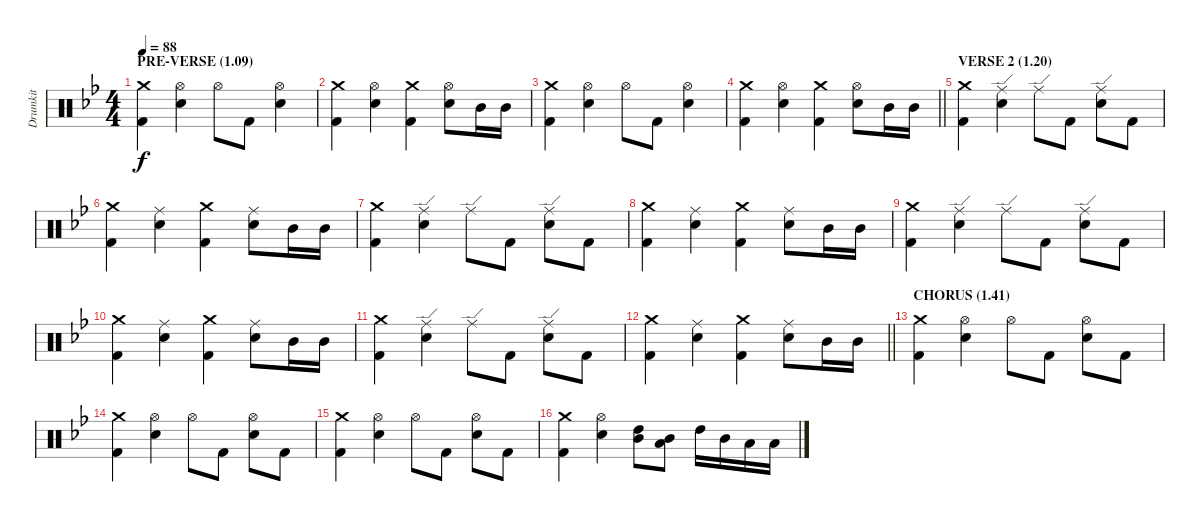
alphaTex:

\track ("Drumkit" "Drumkit") {instrument percussion}
\staff {score}
\articulation defaults
\ts (4 4)
\section ("" "PRE-VERSE (1.09)")
\tempo 88
\clef neutral
\ks bb
("Kick (hit) 2" "Crash medium (hit)").4{dy f} ("Snare (hit) 2" "Hi-Hat (open)").4 "Hi-Hat (open)".8 "Kick (hit) 2".8 ("Snare (hit) 2" "Hi-Hat (open)").4 |
("Kick (hit) 2" "Crash medium (hit)").4 ("Snare (hit) 2" "Hi-Hat (open)").4 ("Kick (hit) 2" "Crash medium (hit)").4 ("Snare (hit) 2" "Hi-Hat (open)").8 "Mid Tom (hit)".16 "Mid Tom (hit)".16 |
("Kick (hit) 2" "Crash medium (hit)").4 ("Snare (hit) 2" "Hi-Hat (open)").4 "Hi-Hat (open)".8 "Kick (hit) 2".8 ("Snare (hit) 2" "Hi-Hat (open)").4 |
\barLineRight lightlight
("Kick (hit) 2" "Crash medium (hit)").4 ("Snare (hit) 2" "Hi-Hat (open)").4 ("Kick (hit) 2" "Crash medium (hit)").4 ("Snare (hit) 2" "Hi-Hat (open)").8 "Mid Tom (hit)".16 "Mid Tom (hit)".16 |
\section ("" "VERSE 2 (1.20)")
("Kick (hit) 2" "Crash medium (hit)").4 ("Snare (hit) 2" "Ride (edge)").4 "Ride (edge)".8 "Kick (hit) 2".8 ("Snare (hit) 2" "Ride (edge)").8 "Kick (hit) 2".8 |
("Kick (hit) 2" "Crash medium (hit)").4 ("Snare (hit) 2" "Ride (middle)").4 ("Kick (hit) 2" "Crash medium (hit)").4 ("Snare (hit) 2" "Ride (middle)").8 "Mid Tom (hit)".16 "Mid Tom (hit)".16 |
("Kick (hit) 2" "Crash medium (hit)").4 ("Snare (hit) 2" "Ride (edge)").4 "Ride (edge)".8 "Kick (hit) 2".8 ("Snare (hit) 2" "Ride (edge)").8 "Kick (hit) 2".8 |
("Kick (hit) 2" "Crash medium (hit)").4 ("Snare (hit) 2" "Ride (middle)").4 ("Kick (hit) 2" "Crash medium (hit)").4 ("Snare (hit) 2" "Ride (middle)").8 "Mid Tom (hit)".16 "Mid Tom (hit)".16 |
("Kick (hit) 2" "Crash medium (hit)").4 ("Snare (hit) 2" "Ride (edge)").4 "Ride (edge)".8 "Kick (hit) 2".8 ("Snare (hit) 2" "Ride (edge)").8 "Kick (hit) 2".8 |
("Kick (hit) 2" "Crash medium (hit)").4 ("Snare (hit) 2" "Ride (middle)").4 ("Kick (hit) 2" "Crash medium (hit)").4 ("Snare (hit) 2" "Ride (middle)").8 "Mid Tom (hit)".16 "Mid Tom (hit)".16 |
("Kick (hit) 2" "Crash medium (hit)").4 ("Snare (hit) 2" "Ride (edge)").4 "Ride (edge)".8 "Kick (hit) 2".8 ("Snare (hit) 2" "Ride (edge)").8 "Kick (hit) 2".8 |
\barLineRight lightlight
("Kick (hit) 2" "Crash medium (hit)").4 ("Snare (hit) 2" "Ride (middle)").4 ("Kick (hit) 2" "Crash medium (hit)").4 ("Snare (hit) 2" "Ride (middle)").8 "Mid Tom (hit)".16 "Mid Tom (hit)".16 |
\section ("" "CHORUS (1.41)")
("Kick (hit) 2" "Crash medium (hit)").4 ("Snare (hit) 2" "Hi-Hat (open)").4 "Hi-Hat (open)".8 "Kick (hit) 2".8 ("Snare (hit) 2" "Hi-Hat (open)").8 "Kick (hit) 2".8 |
("Kick (hit) 2" "Crash medium (hit)").4 ("Snare (hit) 2" "Hi-Hat (open)").4 "Hi-Hat (open)".8 "Kick (hit) 2".8 ("Snare (hit) 2" "Hi-Hat (open)").8 "Kick (hit) 2".8 |
("Kick (hit) 2" "Crash medium (hit)").4 ("Snare (hit) 2" "Hi-Hat (open)").4 "Hi-Hat (open)".8 "Kick (hit) 2".8 ("Snare (hit) 2" "Hi-Hat (open)").8 "Kick (hit) 2".8 |
("Kick (hit) 2" "Crash medium (hit)").4 ("Snare (hit) 2" "Hi-Hat (open)").4 ("High Tom (hit)" "Mid Tom (hit)").8 ("Mid Tom (hit)" "Low Tom (hit)").8 "High Tom (hit)".16 "Mid Tom (hit)".16 "Low Tom (hit)".16 "Low Tom (hit)".16
